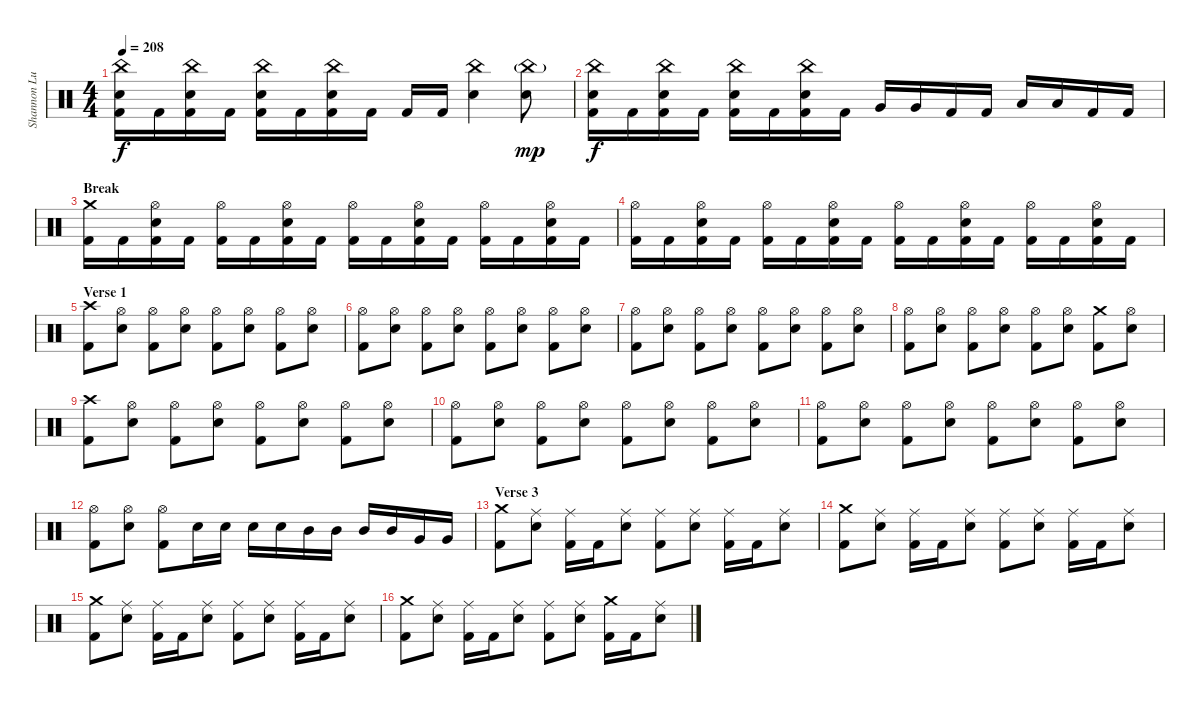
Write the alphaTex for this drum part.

\track ("Shannon Lucas [Drums (Since 2007)]" "Shannon Lu") {instrument percussion}
\staff {score}
\articulation defaults
\ts (4 4)
\tempo 208
\clef neutral
\ks c
("China (hit)" "Snare (hit) 2" "Kick (hit) 2").16{dy f} "Kick (hit) 2".16 ("China (hit)" "Snare (hit) 2" "Kick (hit) 2").16 "Kick (hit) 2".16 ("China (hit)" "Snare (hit) 2" "Kick (hit) 2").16 "Kick (hit) 2".16 ("China (hit)" "Snare (hit) 2" "Kick (hit) 2").16 "Kick (hit) 2".16 "Kick (hit) 2".16 "Kick (hit) 2".16 ("China (hit)" "Snare (hit) 2").4 ("China (hit)"{g} "Snare (hit) 2").8{dy mp} |
("China (hit)" "Snare (hit) 2" "Kick (hit) 2").16{dy f} "Kick (hit) 2".16 ("China (hit)" "Snare (hit) 2" "Kick (hit) 2").16 "Kick (hit) 2".16 ("China (hit)" "Snare (hit) 2" "Kick (hit) 2").16 "Kick (hit) 2".16 ("China (hit)" "Snare (hit) 2" "Kick (hit) 2").16 "Kick (hit) 2".16 "Very Low Tom (hit)".16 "Very Low Tom (hit)".16 "Kick (hit) 2".16 "Kick (hit) 2".16 "Low Floor Tom (hit)".16 "Low Floor Tom (hit)".16 "Kick (hit) 2".16 "Kick (hit) 2".16 |
\section ("" "Break")
("Crash medium (hit)" "Kick (hit) 2").16 "Kick (hit) 2".16 ("Hi-Hat (open)" "Snare (hit) 2" "Kick (hit) 2").16 "Kick (hit) 2".16 ("Hi-Hat (open)" "Kick (hit) 2").16 "Kick (hit) 2".16 ("Hi-Hat (open)" "Snare (hit) 2" "Kick (hit) 2").16 "Kick (hit) 2".16 ("Hi-Hat (open)" "Kick (hit) 2").16 "Kick (hit) 2".16 ("Hi-Hat (open)" "Snare (hit) 2" "Kick (hit) 2").16 "Kick (hit) 2".16 ("Hi-Hat (open)" "Kick (hit) 2").16 "Kick (hit) 2".16 ("Hi-Hat (open)" "Snare (hit) 2" "Kick (hit) 2").16 "Kick (hit) 2".16 |
("Hi-Hat (open)" "Kick (hit) 2").16 "Kick (hit) 2".16 ("Hi-Hat (open)" "Snare (hit) 2" "Kick (hit) 2").16 "Kick (hit) 2".16 ("Hi-Hat (open)" "Kick (hit) 2").16 "Kick (hit) 2".16 ("Hi-Hat (open)" "Snare (hit) 2" "Kick (hit) 2").16 "Kick (hit) 2".16 ("Hi-Hat (open)" "Kick (hit) 2").16 "Kick (hit) 2".16 ("Hi-Hat (open)" "Snare (hit) 2" "Kick (hit) 2").16 "Kick (hit) 2".16 ("Hi-Hat (open)" "Kick (hit) 2").16 "Kick (hit) 2".16 ("Hi-Hat (open)" "Snare (hit) 2" "Kick (hit) 2").16 "Kick (hit) 2".16 |
\section ("" "Verse 1")
("Crash high (hit)" "Kick (hit) 2").8 ("Hi-Hat (open)" "Snare (hit) 2").8 ("Hi-Hat (open)" "Kick (hit) 2").8 ("Hi-Hat (open)" "Snare (hit) 2").8 ("Hi-Hat (open)" "Kick (hit) 2").8 ("Hi-Hat (open)" "Snare (hit) 2").8 ("Hi-Hat (open)" "Kick (hit) 2").8 ("Hi-Hat (open)" "Snare (hit) 2").8 |
("Hi-Hat (open)" "Kick (hit) 2").8 ("Hi-Hat (open)" "Snare (hit) 2").8 ("Hi-Hat (open)" "Kick (hit) 2").8 ("Hi-Hat (open)" "Snare (hit) 2").8 ("Hi-Hat (open)" "Kick (hit) 2").8 ("Hi-Hat (open)" "Snare (hit) 2").8 ("Hi-Hat (open)" "Kick (hit) 2").8 ("Hi-Hat (open)" "Snare (hit) 2").8 |
("Hi-Hat (open)" "Kick (hit) 2").8 ("Hi-Hat (open)" "Snare (hit) 2").8 ("Hi-Hat (open)" "Kick (hit) 2").8 ("Hi-Hat (open)" "Snare (hit) 2").8 ("Hi-Hat (open)" "Kick (hit) 2").8 ("Hi-Hat (open)" "Snare (hit) 2").8 ("Hi-Hat (open)" "Kick (hit) 2").8 ("Hi-Hat (open)" "Snare (hit) 2").8 |
("Hi-Hat (open)" "Kick (hit) 2").8 ("Hi-Hat (open)" "Snare (hit) 2").8 ("Hi-Hat (open)" "Kick (hit) 2").8 ("Hi-Hat (open)" "Snare (hit) 2").8 ("Hi-Hat (open)" "Kick (hit) 2").8 ("Hi-Hat (open)" "Snare (hit) 2").8 ("Crash medium (hit)" "Kick (hit) 2").8 ("Hi-Hat (open)" "Snare (hit) 2").8 |
("Crash high (hit)" "Kick (hit) 2").8 ("Hi-Hat (open)" "Snare (hit) 2").8 ("Hi-Hat (open)" "Kick (hit) 2").8 ("Hi-Hat (open)" "Snare (hit) 2").8 ("Hi-Hat (open)" "Kick (hit) 2").8 ("Hi-Hat (open)" "Snare (hit) 2").8 ("Hi-Hat (open)" "Kick (hit) 2").8 ("Hi-Hat (open)" "Snare (hit) 2").8 |
("Hi-Hat (open)" "Kick (hit) 2").8 ("Hi-Hat (open)" "Snare (hit) 2").8 ("Hi-Hat (open)" "Kick (hit) 2").8 ("Hi-Hat (open)" "Snare (hit) 2").8 ("Hi-Hat (open)" "Kick (hit) 2").8 ("Hi-Hat (open)" "Snare (hit) 2").8 ("Hi-Hat (open)" "Kick (hit) 2").8 ("Hi-Hat (open)" "Snare (hit) 2").8 |
("Hi-Hat (open)" "Kick (hit) 2").8 ("Hi-Hat (open)" "Snare (hit) 2").8 ("Hi-Hat (open)" "Kick (hit) 2").8 ("Hi-Hat (open)" "Snare (hit) 2").8 ("Hi-Hat (open)" "Kick (hit) 2").8 ("Hi-Hat (open)" "Snare (hit) 2").8 ("Hi-Hat (open)" "Kick (hit) 2").8 ("Hi-Hat (open)" "Snare (hit) 2").8 |
("Hi-Hat (open)" "Kick (hit) 2").8 ("Hi-Hat (open)" "Snare (hit) 2").8 ("Hi-Hat (open)" "Kick (hit) 2").8 "Snare (hit) 2".16 "Snare (hit) 2".16 "Snare (hit) 2".16 "Snare (hit) 2".16 "Mid Tom (hit)".16 "Mid Tom (hit)".16 "Mid Tom (hit)".16 "Mid Tom (hit)".16 "Very Low Tom (hit)".16 "Very Low Tom (hit)".16 |
\section ("" "Verse 3")
("Crash medium (hit)" "Kick (hit) 2").8 ("Ride (middle)" "Snare (hit) 2").8 ("Ride (middle)" "Kick (hit) 2").16 "Kick (hit) 2".16 ("Ride (middle)" "Snare (hit) 2").8 ("Ride (middle)" "Kick (hit) 2").8 ("Ride (middle)" "Snare (hit) 2").8 ("Ride (middle)" "Kick (hit) 2").16 "Kick (hit) 2".16 ("Ride (middle)" "Snare (hit) 2").8 |
("Crash medium (hit)" "Kick (hit) 2").8 ("Ride (middle)" "Snare (hit) 2").8 ("Ride (middle)" "Kick (hit) 2").16 "Kick (hit) 2".16 ("Ride (middle)" "Snare (hit) 2").8 ("Ride (middle)" "Kick (hit) 2").8 ("Ride (middle)" "Snare (hit) 2").8 ("Ride (middle)" "Kick (hit) 2").16 "Kick (hit) 2".16 ("Ride (middle)" "Snare (hit) 2").8 |
("Crash medium (hit)" "Kick (hit) 2").8 ("Ride (middle)" "Snare (hit) 2").8 ("Ride (middle)" "Kick (hit) 2").16 "Kick (hit) 2".16 ("Ride (middle)" "Snare (hit) 2").8 ("Ride (middle)" "Kick (hit) 2").8 ("Ride (middle)" "Snare (hit) 2").8 ("Ride (middle)" "Kick (hit) 2").16 "Kick (hit) 2".16 ("Ride (middle)" "Snare (hit) 2").8 |
("Crash medium (hit)" "Kick (hit) 2").8 ("Ride (middle)" "Snare (hit) 2").8 ("Ride (middle)" "Kick (hit) 2").16 "Kick (hit) 2".16 ("Ride (middle)" "Snare (hit) 2").8 ("Ride (middle)" "Kick (hit) 2").8 ("Ride (middle)" "Snare (hit) 2").8 ("Crash medium (hit)" "Kick (hit) 2").16 "Kick (hit) 2".16 ("Ride (middle)" "Snare (hit) 2").8
